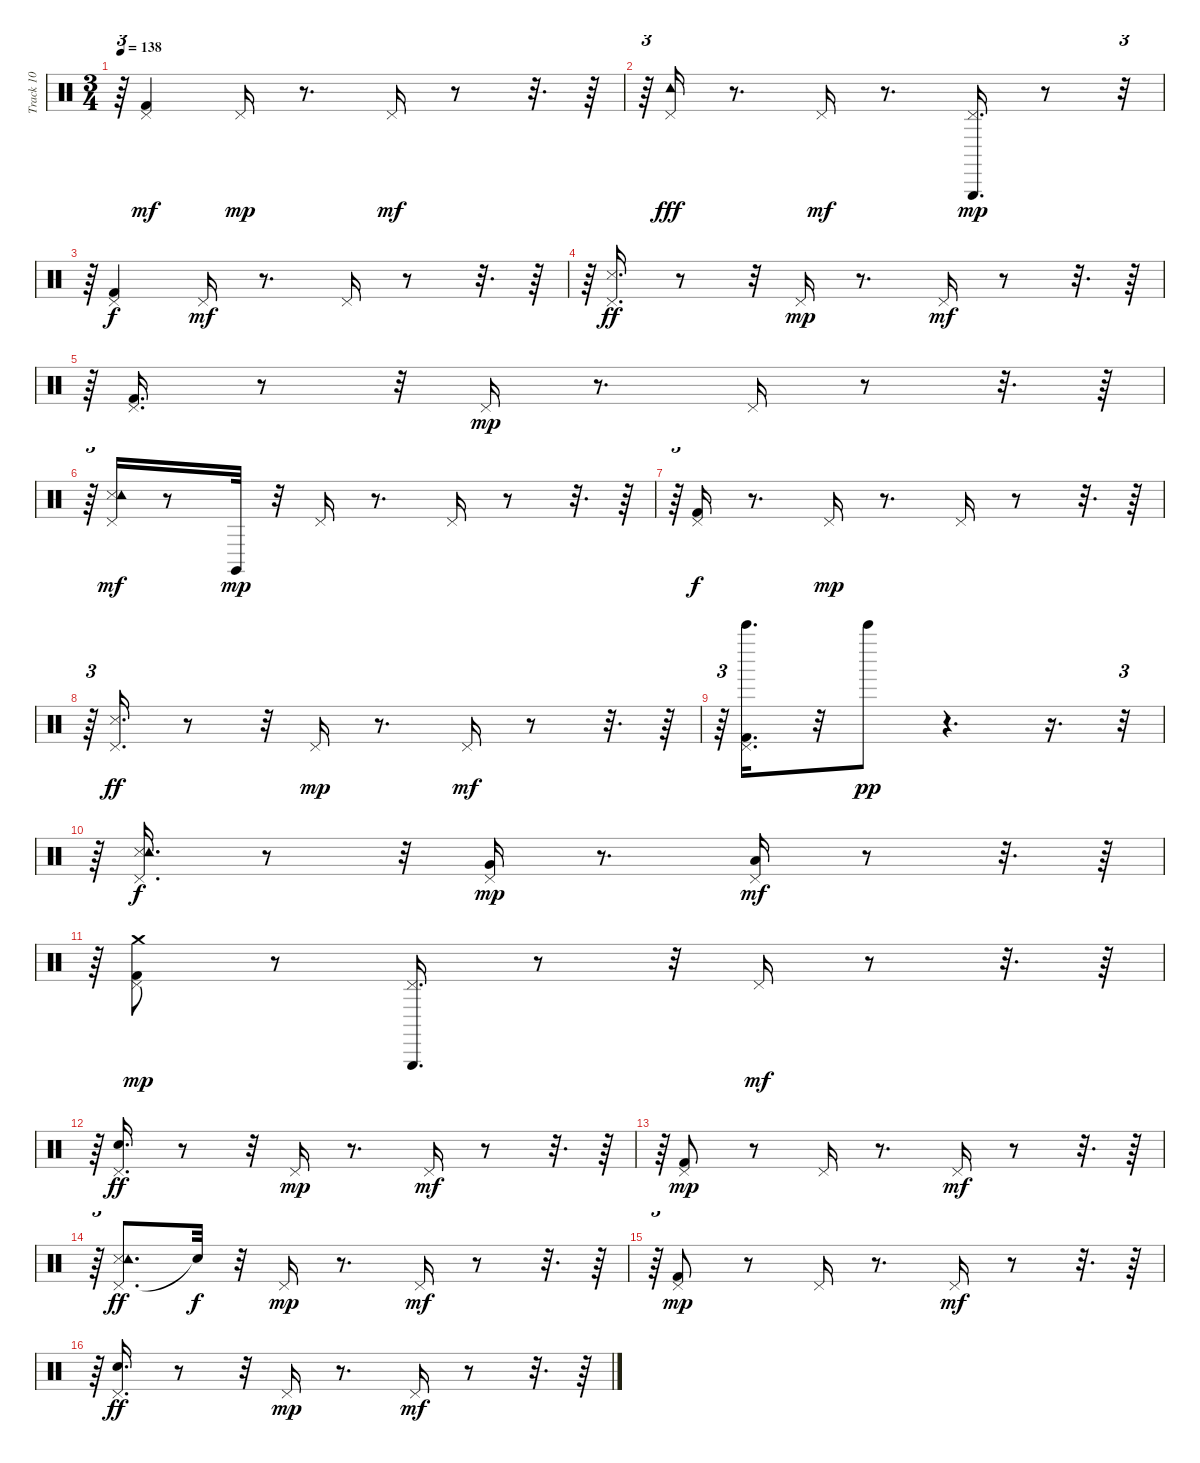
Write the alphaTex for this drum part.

\track ("Track 10" "Track 10") {instrument percussion}
\staff {score}
\articulation defaults
\ts (3 4)
\tempo 138
\clef neutral
\ks c
r.64{tu (3 2) dy mp} ("Pedal Hi-Hat (hit)" "Kick (hit) 2").4{dy mf} "Pedal Hi-Hat (hit)".16{dy mp} r.8{d} "Pedal Hi-Hat (hit)".16{dy mf} r.8 r.32{d} r.64 |
r.64{tu (3 2)} ("Pedal Hi-Hat (hit)" "Tambourine (hit)").16{dy fff} r.8{d} "Pedal Hi-Hat (hit)".16{dy mf} r.8{d} ("Pedal Hi-Hat (hit)" "Triangle (hit)").16{d dy mp} r.8 r.32{tu (3 2)} |
r.64{tu (3 2)} ("Pedal Hi-Hat (hit)" "Kick (hit) 2").4{dy f} "Pedal Hi-Hat (hit)".16{dy mf} r.8{d} "Pedal Hi-Hat (hit)".16 r.8 r.32{d} r.64 |
r.64{tu (3 2)} ("Pedal Hi-Hat (hit)" "Snare (side stick) 3").16{d dy ff} r.8 r.32 "Pedal Hi-Hat (hit)".16{dy mp} r.8{d} "Pedal Hi-Hat (hit)".16{dy mf} r.8 r.32{d} r.64 |
r.64{tu (3 2)} ("Pedal Hi-Hat (hit)" "Kick (hit) 2").16{d} r.8 r.32 "Pedal Hi-Hat (hit)".16{dy mp} r.8{d} "Pedal Hi-Hat (hit)".16 r.8 r.32{d} r.64 |
r.64{tu (3 2)} ("Pedal Hi-Hat (hit)" "Snare (side stick) 3" "Tambourine (hit)").16{dy mf} r.8 "Claves (hit)".32{dy mp} r.32 "Pedal Hi-Hat (hit)".16 r.8{d} "Pedal Hi-Hat (hit)".16 r.8 r.32{d} r.64 |
r.64{tu (3 2)} ("Kick (hit) 2" "Pedal Hi-Hat (hit)").16{dy f} r.8{d} "Pedal Hi-Hat (hit)".16{dy mp} r.8{d} "Pedal Hi-Hat (hit)".16 r.8 r.32{d} r.64 |
r.64{tu (3 2)} ("Snare (side stick) 3" "Pedal Hi-Hat (hit)").16{d dy ff} r.8 r.32 "Pedal Hi-Hat (hit)".16{dy mp} r.8{d} "Pedal Hi-Hat (hit)".16{dy mf} r.8 r.32{d} r.64 |
r.64{tu (3 2)} ("Bell Tree (hit)" "Kick (hit) 2" "Pedal Hi-Hat (hit)").16{d} r.32 "Bell Tree (hit)".8{dy pp} r.4{d} r.16{d} r.32{tu (3 2)} |
r.64{tu (3 2)} ("Pedal Hi-Hat (hit)" "Snare (side stick) 3" "Tambourine (hit)").16{d dy f} r.8 r.32 ("Pedal Hi-Hat (hit)" "Very Low Tom (hit)").16{dy mp} r.8{d} ("Pedal Hi-Hat (hit)" "Low Floor Tom (hit)").16{dy mf} r.8 r.32{d} r.64 |
r.64{tu (3 2)} ("Pedal Hi-Hat (hit)" "Kick (hit) 2" "Crash medium (hit)").8{dy mp} r.8 ("Pedal Hi-Hat (hit)" "Triangle (hit)").16{d} r.8 r.32 "Pedal Hi-Hat (hit)".16{dy mf} r.8 r.32{d} r.64 |
r.64{tu (3 2)} ("Pedal Hi-Hat (hit)" "Electric Snare (hit)").16{d dy ff} r.8 r.32 "Pedal Hi-Hat (hit)".16{dy mp} r.8{d} "Pedal Hi-Hat (hit)".16{dy mf} r.8 r.32{d} r.64 |
r.64{tu (3 2)} ("Pedal Hi-Hat (hit)" "Kick (hit) 2").8{dy mp} r.8 "Pedal Hi-Hat (hit)".16 r.8{d} "Pedal Hi-Hat (hit)".16{dy mf} r.8 r.32{d} r.64 |
r.64{tu (3 2)} ("Pedal Hi-Hat (hit)" "Snare (side stick) 3" "Tambourine (hit)").8{d dy ff} "Snare (hit)"{t}.32{dy f} r.32 "Pedal Hi-Hat (hit)".16{dy mp} r.8{d} "Pedal Hi-Hat (hit)".16{dy mf} r.8 r.32{d} r.64 |
r.64{tu (3 2)} ("Pedal Hi-Hat (hit)" "Kick (hit) 2").8{dy mp} r.8 "Pedal Hi-Hat (hit)".16 r.8{d} "Pedal Hi-Hat (hit)".16{dy mf} r.8 r.32{d} r.64 |
r.64{tu (3 2)} ("Pedal Hi-Hat (hit)" "Electric Snare (hit)").16{d dy ff} r.8 r.32 "Pedal Hi-Hat (hit)".16{dy mp} r.8{d} "Pedal Hi-Hat (hit)".16{dy mf} r.8 r.32{d} r.64
